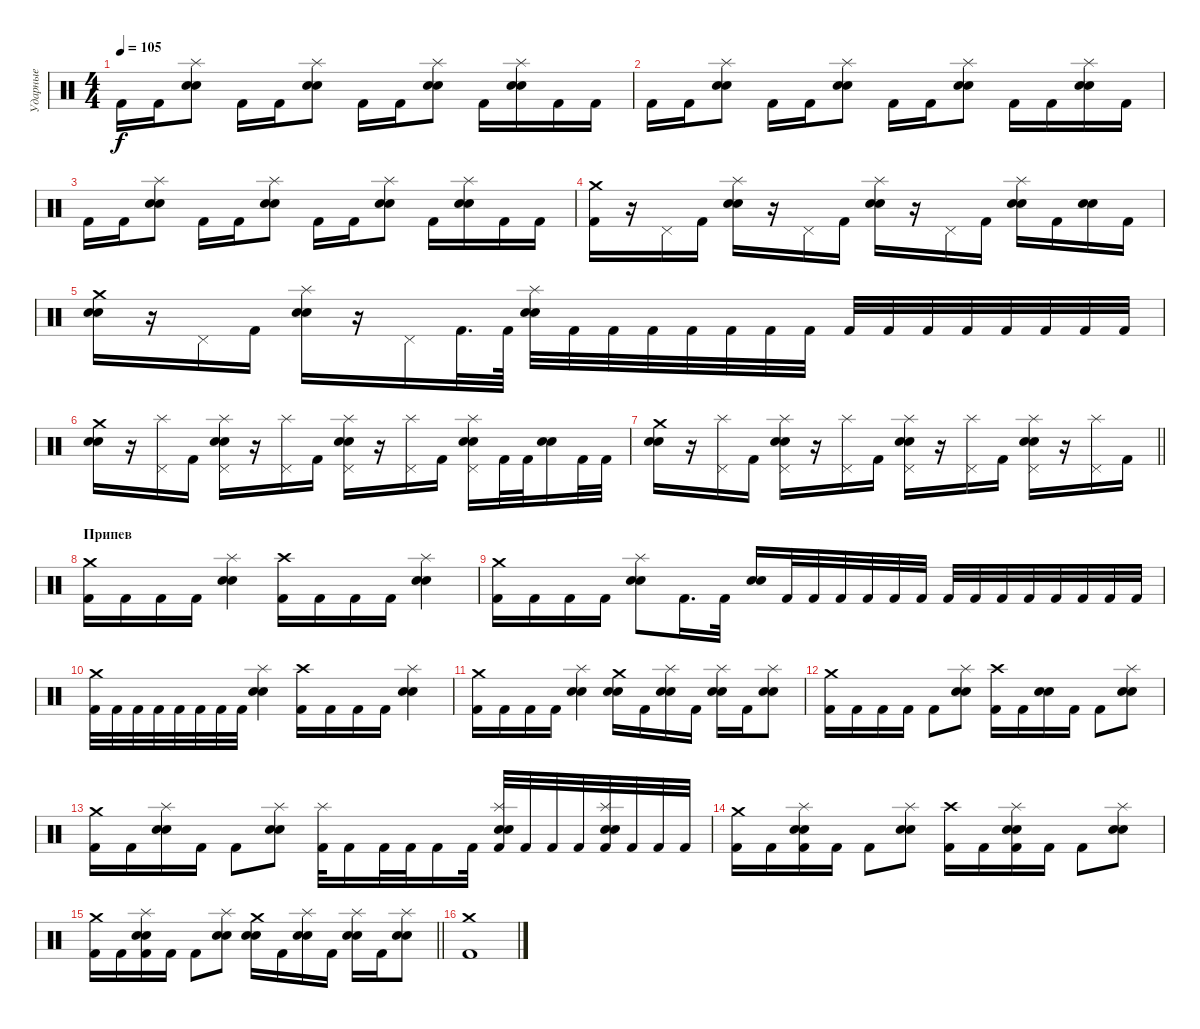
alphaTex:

\track ("Ударные" "Ударные") {instrument percussion}
\staff {score}
\articulation defaults
\ts (4 4)
\tempo 105
\clef neutral
\ks c "Kick (hit) 2".16{dy f} "Kick (hit) 2".16
("Splash (hit)" "Electric Snare (hit)" "Snare (hit) 2").8 "Kick (hit) 2".16 "Kick (hit) 2".16 ("Splash (hit)" "Electric Snare (hit)" "Snare (hit) 2").8 "Kick (hit) 2".16 "Kick (hit) 2".16 ("Splash (hit)" "Electric Snare (hit)" "Snare (hit) 2").8 "Kick (hit) 2".16 ("Splash (hit)" "Electric Snare (hit)" "Snare (hit) 2").16 "Kick (hit) 2".16 "Kick (hit) 2".16 |
"Kick (hit) 2".16 "Kick (hit) 2".16 ("Splash (hit)" "Electric Snare (hit)" "Snare (hit) 2").8 "Kick (hit) 2".16 "Kick (hit) 2".16 ("Splash (hit)" "Electric Snare (hit)" "Snare (hit) 2").8 "Kick (hit) 2".16 "Kick (hit) 2".16 ("Splash (hit)" "Electric Snare (hit)" "Snare (hit) 2").8 "Kick (hit) 2".16 "Kick (hit) 2".16 ("Splash (hit)" "Electric Snare (hit)" "Snare (hit) 2").16 "Kick (hit) 2".16 |
"Kick (hit) 2".16 "Kick (hit) 2".16 ("Splash (hit)" "Electric Snare (hit)" "Snare (hit) 2").8 "Kick (hit) 2".16 "Kick (hit) 2".16 ("Splash (hit)" "Electric Snare (hit)" "Snare (hit) 2").8 "Kick (hit) 2".16 "Kick (hit) 2".16 ("Splash (hit)" "Electric Snare (hit)" "Snare (hit) 2").8 "Kick (hit) 2".16 ("Splash (hit)" "Electric Snare (hit)" "Snare (hit) 2").16 "Kick (hit) 2".16 "Kick (hit) 2".16 |
("Crash medium (hit)" "Kick (hit) 2").16 r.16 "Pedal Hi-Hat (hit)".16 "Kick (hit) 2".16 ("Splash (hit)" "Electric Snare (hit)" "Snare (hit) 2").16 r.16 "Pedal Hi-Hat (hit)".16 "Kick (hit) 2".16 ("Splash (hit)" "Electric Snare (hit)" "Snare (hit) 2").16 r.16 "Pedal Hi-Hat (hit)".16 "Kick (hit) 2".16 ("Splash (hit)" "Electric Snare (hit)" "Snare (hit) 2").16 "Kick (hit) 2".16 ("Electric Snare (hit)" "Snare (hit) 2").16 "Kick (hit) 2".16 |
("Crash medium (hit)" "Electric Snare (hit)" "Snare (hit) 2").16 r.16 "Pedal Hi-Hat (hit)".16 "Kick (hit) 2".16 ("Splash (hit)" "Electric Snare (hit)" "Snare (hit) 2").16 r.16 "Pedal Hi-Hat (hit)".16 "Kick (hit) 2".32{d} "Kick (hit) 2".64 ("Splash (hit)" "Electric Snare (hit)" "Snare (hit) 2").32 "Kick (hit) 2".32 "Kick (hit) 2".32 "Kick (hit) 2".32 "Kick (hit) 2".32 "Kick (hit) 2".32 "Kick (hit) 2".32 "Kick (hit) 2".32 "Kick (hit) 2".32 "Kick (hit) 2".32 "Kick (hit) 2".32 "Kick (hit) 2".32 "Kick (hit) 2".32 "Kick (hit) 2".32 "Kick (hit) 2".32 "Kick (hit) 2".32 |
("Crash medium (hit)" "Electric Snare (hit)" "Snare (hit) 2").16 r.16 ("Splash (hit)" "Pedal Hi-Hat (hit)").16 "Kick (hit) 2".16 ("Splash (hit)" "Pedal Hi-Hat (hit)" "Electric Snare (hit)" "Snare (hit) 2").16 r.16 ("Splash (hit)" "Pedal Hi-Hat (hit)").16 "Kick (hit) 2".16 ("Splash (hit)" "Pedal Hi-Hat (hit)" "Electric Snare (hit)" "Snare (hit) 2").16 r.16 ("Splash (hit)" "Pedal Hi-Hat (hit)").16 "Kick (hit) 2".16 ("Splash (hit)" "Pedal Hi-Hat (hit)" "Electric Snare (hit)" "Snare (hit) 2").16 "Kick (hit) 2".32 "Kick (hit) 2".32 ("Electric Snare (hit)" "Snare (hit) 2").16 "Kick (hit) 2".32 "Kick (hit) 2".32 |
\barLineRight lightlight
("Crash medium (hit)" "Electric Snare (hit)" "Snare (hit) 2").16 r.16 ("Splash (hit)" "Pedal Hi-Hat (hit)").16 "Kick (hit) 2".16 ("Splash (hit)" "Pedal Hi-Hat (hit)" "Electric Snare (hit)" "Snare (hit) 2").16 r.16 ("Splash (hit)" "Pedal Hi-Hat (hit)").16 "Kick (hit) 2".16 ("Splash (hit)" "Pedal Hi-Hat (hit)" "Electric Snare (hit)" "Snare (hit) 2").16 r.16 ("Splash (hit)" "Pedal Hi-Hat (hit)").16 "Kick (hit) 2".16 ("Splash (hit)" "Pedal Hi-Hat (hit)" "Electric Snare (hit)" "Snare (hit) 2").16 r.16 ("Splash (hit)" "Pedal Hi-Hat (hit)").16 "Kick (hit) 2".16 |
\section ("" "Припев")
("Crash medium (hit)" "Kick (hit) 2").16 "Kick (hit) 2".16 "Kick (hit) 2".16 "Kick (hit) 2".16 ("Splash (hit)" "Electric Snare (hit)" "Snare (hit) 2").4 ("Crash high (hit)" "Kick (hit) 2").16 "Kick (hit) 2".16 "Kick (hit) 2".16 "Kick (hit) 2".16 ("Splash (hit)" "Electric Snare (hit)" "Snare (hit) 2").4 |
("Crash medium (hit)" "Kick (hit) 2").16 "Kick (hit) 2".16 "Kick (hit) 2".16 "Kick (hit) 2".16 ("Splash (hit)" "Electric Snare (hit)" "Snare (hit) 2").8 "Kick (hit) 2".16{d} "Kick (hit) 2".32 ("Electric Snare (hit)" "Snare (hit) 2").16 "Kick (hit) 2".32 "Kick (hit) 2".32 "Kick (hit) 2".32 "Kick (hit) 2".32 "Kick (hit) 2".32 "Kick (hit) 2".32 "Kick (hit) 2".32 "Kick (hit) 2".32 "Kick (hit) 2".32 "Kick (hit) 2".32 "Kick (hit) 2".32 "Kick (hit) 2".32 "Kick (hit) 2".32 "Kick (hit) 2".32 |
("Crash medium (hit)" "Kick (hit) 2").32 "Kick (hit) 2".32 "Kick (hit) 2".32 "Kick (hit) 2".32 "Kick (hit) 2".32 "Kick (hit) 2".32 "Kick (hit) 2".32 "Kick (hit) 2".32 ("Splash (hit)" "Electric Snare (hit)" "Snare (hit) 2").4 ("Crash high (hit)" "Kick (hit) 2").16 "Kick (hit) 2".16 "Kick (hit) 2".16 "Kick (hit) 2".16 ("Splash (hit)" "Electric Snare (hit)" "Snare (hit) 2").4 |
("Crash medium (hit)" "Kick (hit) 2").16 "Kick (hit) 2".16 "Kick (hit) 2".16 "Kick (hit) 2".16 ("Splash (hit)" "Electric Snare (hit)" "Snare (hit) 2").4 ("Crash medium (hit)" "Electric Snare (hit)" "Snare (hit) 2").16 "Kick (hit) 2".16 ("Splash (hit)" "Electric Snare (hit)" "Snare (hit) 2").16 "Kick (hit) 2".16 ("Splash (hit)" "Electric Snare (hit)" "Snare (hit) 2").16 "Kick (hit) 2".16 ("Splash (hit)" "Electric Snare (hit)" "Snare (hit) 2").8 |
("Crash medium (hit)" "Kick (hit) 2").16 "Kick (hit) 2".16 "Kick (hit) 2".16 "Kick (hit) 2".16 "Kick (hit) 2".8 ("Splash (hit)" "Electric Snare (hit)" "Snare (hit) 2").8 ("Crash high (hit)" "Kick (hit) 2").16 "Kick (hit) 2".16 ("Electric Snare (hit)" "Snare (hit) 2").16 "Kick (hit) 2".16 "Kick (hit) 2".8 ("Splash (hit)" "Electric Snare (hit)" "Snare (hit) 2").8 |
("Crash medium (hit)" "Kick (hit) 2").16 "Kick (hit) 2".16 ("Splash (hit)" "Electric Snare (hit)" "Snare (hit) 2").16 "Kick (hit) 2".16 "Kick (hit) 2".8 ("Splash (hit)" "Electric Snare (hit)" "Snare (hit) 2").8 ("Splash (hit)" "Kick (hit) 2").32 "Kick (hit) 2".16 "Kick (hit) 2".32 "Kick (hit) 2".32 "Kick (hit) 2".16 "Kick (hit) 2".32 ("Splash (hit)" "Electric Snare (hit)" "Snare (hit) 2" "Kick (hit) 2").32 "Kick (hit) 2".32 "Kick (hit) 2".32 "Kick (hit) 2".32 ("Splash (hit)" "Electric Snare (hit)" "Snare (hit) 2" "Kick (hit) 2").32 "Kick (hit) 2".32 "Kick (hit) 2".32 "Kick (hit) 2".32 |
("Crash medium (hit)" "Kick (hit) 2").16 "Kick (hit) 2".16 ("Splash (hit)" "Electric Snare (hit)" "Snare (hit) 2" "Kick (hit) 2").16 "Kick (hit) 2".16 "Kick (hit) 2".8 ("Splash (hit)" "Electric Snare (hit)" "Snare (hit) 2").8 ("Crash high (hit)" "Kick (hit) 2").16 "Kick (hit) 2".16 ("Splash (hit)" "Electric Snare (hit)" "Snare (hit) 2" "Kick (hit) 2").16 "Kick (hit) 2".16 "Kick (hit) 2".8 ("Splash (hit)" "Electric Snare (hit)" "Snare (hit) 2").8 |
\barLineRight lightlight
("Crash medium (hit)" "Kick (hit) 2").16 "Kick (hit) 2".16 ("Splash (hit)" "Electric Snare (hit)" "Snare (hit) 2" "Kick (hit) 2").16 "Kick (hit) 2".16 "Kick (hit) 2".8 ("Splash (hit)" "Electric Snare (hit)" "Snare (hit) 2").8 ("Crash medium (hit)" "Electric Snare (hit)" "Snare (hit) 2").16 "Kick (hit) 2".16 ("Splash (hit)" "Electric Snare (hit)" "Snare (hit) 2").16 "Kick (hit) 2".16 ("Splash (hit)" "Electric Snare (hit)" "Snare (hit) 2").16 "Kick (hit) 2".16 ("Splash (hit)" "Electric Snare (hit)" "Snare (hit) 2").8 |
("Crash medium (hit)" "Kick (hit) 2").1
